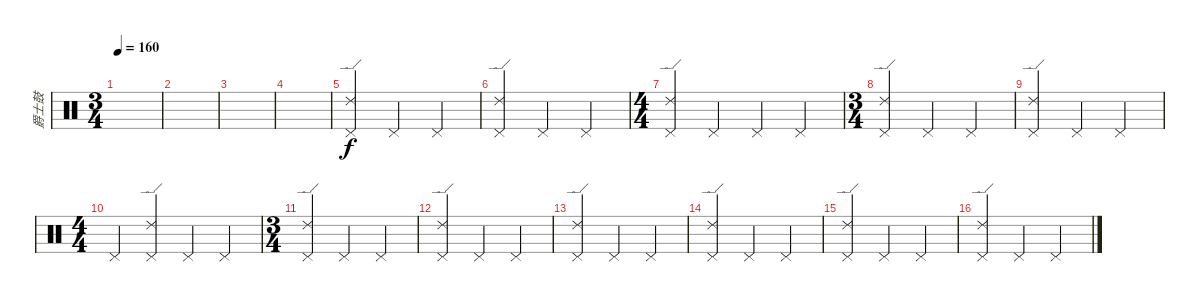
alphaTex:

\track ("爵士鼓" "爵士鼓") {instrument percussion}
\staff {score}
\articulation defaults
\ts (3 4)
\tempo 160
\clef neutral
\ks c
|
|
|
|
("Pedal Hi-Hat (hit)" "Ride (edge) 2").4 "Pedal Hi-Hat (hit)".4 "Pedal Hi-Hat (hit)".4 |
("Pedal Hi-Hat (hit)" "Ride (edge) 2").4 "Pedal Hi-Hat (hit)".4 "Pedal Hi-Hat (hit)".4 |
\ts (4 4)
("Pedal Hi-Hat (hit)" "Ride (edge) 2").4 "Pedal Hi-Hat (hit)".4 "Pedal Hi-Hat (hit)".4 "Pedal Hi-Hat (hit)".4 |
\ts (3 4)
("Pedal Hi-Hat (hit)" "Ride (edge) 2").4 "Pedal Hi-Hat (hit)".4 "Pedal Hi-Hat (hit)".4 |
("Pedal Hi-Hat (hit)" "Ride (edge) 2").4 "Pedal Hi-Hat (hit)".4 "Pedal Hi-Hat (hit)".4 |
\ts (4 4)
"Pedal Hi-Hat (hit)".4 ("Pedal Hi-Hat (hit)" "Ride (edge) 2").4 "Pedal Hi-Hat (hit)".4 "Pedal Hi-Hat (hit)".4 |
\ts (3 4)
("Pedal Hi-Hat (hit)" "Ride (edge) 2").4 "Pedal Hi-Hat (hit)".4 "Pedal Hi-Hat (hit)".4 |
("Pedal Hi-Hat (hit)" "Ride (edge) 2").4 "Pedal Hi-Hat (hit)".4 "Pedal Hi-Hat (hit)".4 |
("Pedal Hi-Hat (hit)" "Ride (edge) 2").4 "Pedal Hi-Hat (hit)".4 "Pedal Hi-Hat (hit)".4 |
("Pedal Hi-Hat (hit)" "Ride (edge) 2").4 "Pedal Hi-Hat (hit)".4 "Pedal Hi-Hat (hit)".4 |
("Pedal Hi-Hat (hit)" "Ride (edge) 2").4 "Pedal Hi-Hat (hit)".4 "Pedal Hi-Hat (hit)".4 |
("Pedal Hi-Hat (hit)" "Ride (edge) 2").4 "Pedal Hi-Hat (hit)".4 "Pedal Hi-Hat (hit)".4
